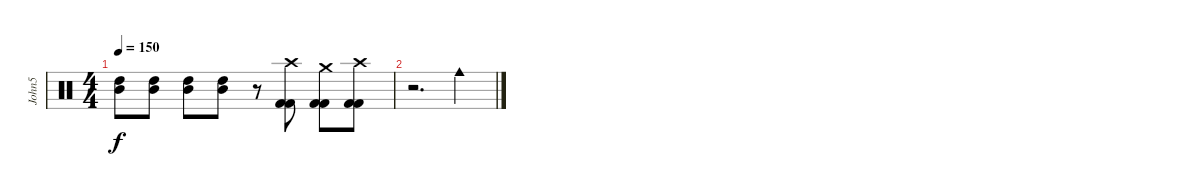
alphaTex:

\track ("John5" "John5") {instrument percussion}
\staff {score}
\articulation defaults
\ts (4 4)
\tempo 150
\clef neutral
\ks c
("High Tom (hit)" "Mid Tom (hit)").8{dy f} ("High Tom (hit)" "Mid Tom (hit)").8 ("High Tom (hit)" "Mid Tom (hit)").8 ("High Tom (hit)" "Mid Tom (hit)").8 r.8 ("Crash high (hit)" "Kick (hit) 2" "Kick (hit) 2").8 ("Crash medium (hit)" "Kick (hit) 2" "Kick (hit) 2").8 ("Crash high (hit)" "Kick (hit) 2" "Kick (hit) 2").8 |
r.2{d} "Cowbell medium (hit)".4
